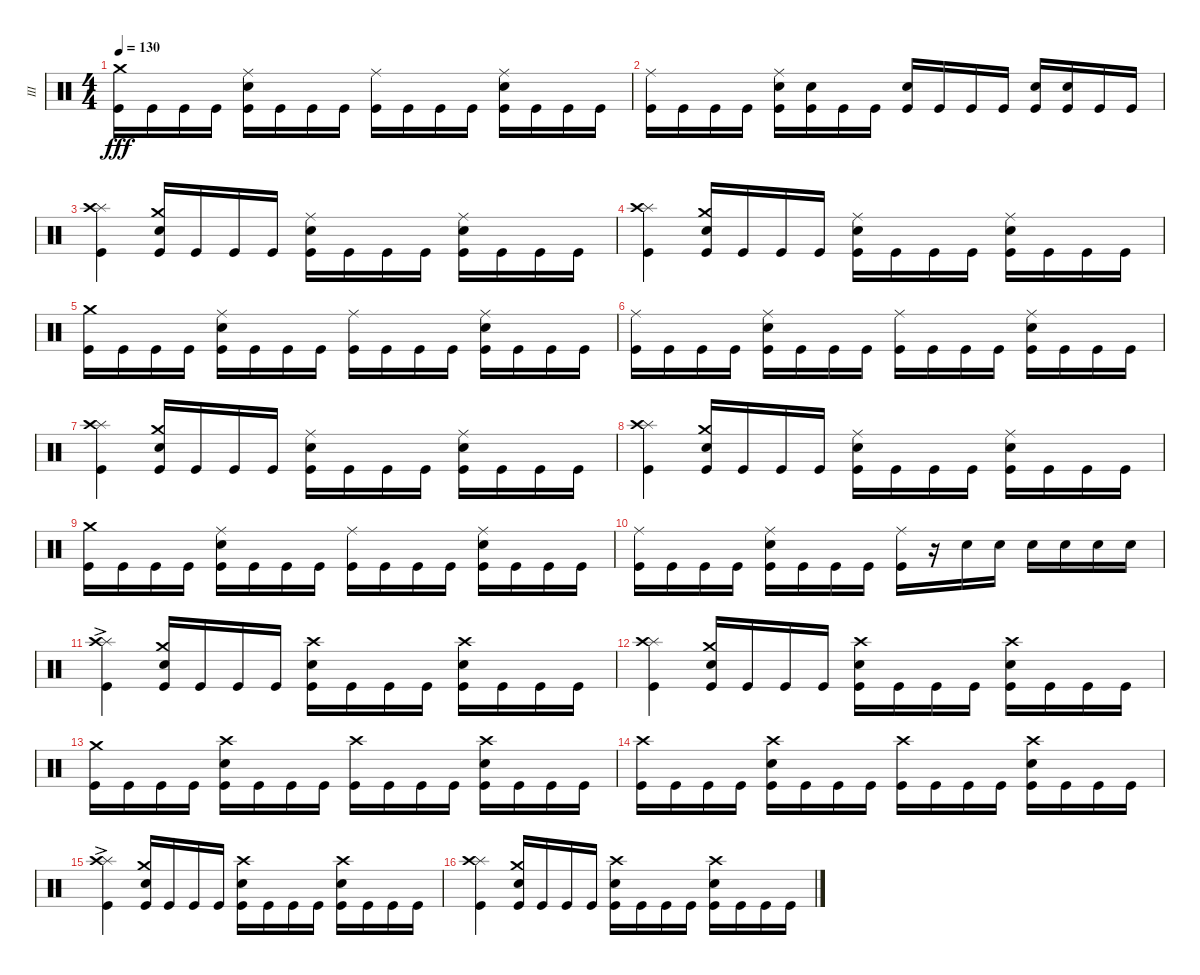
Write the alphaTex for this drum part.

\track ("III" "III") {instrument percussion}
\staff {score}
\articulation defaults
\ts (4 4)
\tempo 130
\clef neutral
\ks c
("Kick (hit)" "Crash medium (hit)").16{dy fff} "Kick (hit)".16 "Kick (hit)".16 "Kick (hit)".16 ("Snare (hit) 2" "Kick (hit)" "Ride (middle)").16 "Kick (hit)".16 "Kick (hit)".16 "Kick (hit)".16 ("Kick (hit)" "Ride (middle)").16 "Kick (hit)".16 "Kick (hit)".16 "Kick (hit)".16 ("Snare (hit) 2" "Kick (hit)" "Ride (middle)").16 "Kick (hit)".16 "Kick (hit)".16 "Kick (hit)".16 |
("Kick (hit)" "Ride (middle)").16 "Kick (hit)".16 "Kick (hit)".16 "Kick (hit)".16 ("Snare (hit) 2" "Kick (hit)" "Ride (middle)").16 ("Snare (hit) 2" "Kick (hit)").16 "Kick (hit)".16 "Kick (hit)".16 ("Snare (hit) 2" "Kick (hit)").16 "Kick (hit)".16 "Kick (hit)".16 "Kick (hit)".16 ("Snare (hit) 2" "Kick (hit)").16 ("Snare (hit) 2" "Kick (hit)").16 "Kick (hit)".16 "Kick (hit)".16 |
("Splash (hit)" "Crash high (hit)" "Kick (hit)").4 ("Kick (hit)" "Snare (hit) 2" "Crash medium (hit)").16 "Kick (hit)".16 "Kick (hit)".16 "Kick (hit)".16 ("Snare (hit) 2" "Kick (hit)" "Ride (middle)").16 "Kick (hit)".16 "Kick (hit)".16 "Kick (hit)".16 ("Snare (hit) 2" "Kick (hit)" "Ride (middle)").16 "Kick (hit)".16 "Kick (hit)".16 "Kick (hit)".16 |
("Splash (hit)" "Crash high (hit)" "Kick (hit)").4 ("Kick (hit)" "Snare (hit) 2" "Crash medium (hit)").16 "Kick (hit)".16 "Kick (hit)".16 "Kick (hit)".16 ("Snare (hit) 2" "Kick (hit)" "Ride (middle)").16 "Kick (hit)".16 "Kick (hit)".16 "Kick (hit)".16 ("Snare (hit) 2" "Kick (hit)" "Ride (middle)").16 "Kick (hit)".16 "Kick (hit)".16 "Kick (hit)".16 |
("Kick (hit)" "Crash medium (hit)").16 "Kick (hit)".16 "Kick (hit)".16 "Kick (hit)".16 ("Snare (hit) 2" "Kick (hit)" "Ride (middle)").16 "Kick (hit)".16 "Kick (hit)".16 "Kick (hit)".16 ("Kick (hit)" "Ride (middle)").16 "Kick (hit)".16 "Kick (hit)".16 "Kick (hit)".16 ("Snare (hit) 2" "Kick (hit)" "Ride (middle)").16 "Kick (hit)".16 "Kick (hit)".16 "Kick (hit)".16 |
("Kick (hit)" "Ride (middle)").16 "Kick (hit)".16 "Kick (hit)".16 "Kick (hit)".16 ("Snare (hit) 2" "Kick (hit)" "Ride (middle)").16 "Kick (hit)".16 "Kick (hit)".16 "Kick (hit)".16 ("Kick (hit)" "Ride (middle)").16 "Kick (hit)".16 "Kick (hit)".16 "Kick (hit)".16 ("Snare (hit) 2" "Kick (hit)" "Ride (middle)").16 "Kick (hit)".16 "Kick (hit)".16 "Kick (hit)".16 |
("Splash (hit)" "Crash high (hit)" "Kick (hit)").4 ("Kick (hit)" "Snare (hit) 2" "Crash medium (hit)").16 "Kick (hit)".16 "Kick (hit)".16 "Kick (hit)".16 ("Snare (hit) 2" "Kick (hit)" "Ride (middle)").16 "Kick (hit)".16 "Kick (hit)".16 "Kick (hit)".16 ("Snare (hit) 2" "Kick (hit)" "Ride (middle)").16 "Kick (hit)".16 "Kick (hit)".16 "Kick (hit)".16 |
("Splash (hit)" "Crash high (hit)" "Kick (hit)").4 ("Kick (hit)" "Snare (hit) 2" "Crash medium (hit)").16 "Kick (hit)".16 "Kick (hit)".16 "Kick (hit)".16 ("Snare (hit) 2" "Kick (hit)" "Ride (middle)").16 "Kick (hit)".16 "Kick (hit)".16 "Kick (hit)".16 ("Snare (hit) 2" "Kick (hit)" "Ride (middle)").16 "Kick (hit)".16 "Kick (hit)".16 "Kick (hit)".16 |
("Kick (hit)" "Crash medium (hit)").16 "Kick (hit)".16 "Kick (hit)".16 "Kick (hit)".16 ("Snare (hit) 2" "Kick (hit)" "Ride (middle)").16 "Kick (hit)".16 "Kick (hit)".16 "Kick (hit)".16 ("Kick (hit)" "Ride (middle)").16 "Kick (hit)".16 "Kick (hit)".16 "Kick (hit)".16 ("Snare (hit) 2" "Kick (hit)" "Ride (middle)").16 "Kick (hit)".16 "Kick (hit)".16 "Kick (hit)".16 |
("Kick (hit)" "Ride (middle)").16 "Kick (hit)".16 "Kick (hit)".16 "Kick (hit)".16 ("Snare (hit) 2" "Kick (hit)" "Ride (middle)").16 "Kick (hit)".16 "Kick (hit)".16 "Kick (hit)".16 ("Kick (hit)" "Ride (middle)").16 r.16 "Snare (hit) 2".16 "Snare (hit) 2".16 "Snare (hit) 2".16 "Snare (hit) 2".16 "Snare (hit) 2".16 "Snare (hit) 2".16 |
("Splash (hit)"{ac} "Crash high (hit)"{ac} "Kick (hit)"{ac}).4 ("Kick (hit)" "Snare (hit) 2" "Crash medium (hit)").16 "Kick (hit)".16 "Kick (hit)".16 "Kick (hit)".16 ("Snare (hit) 2" "Kick (hit)" "Crash high (hit)").16 "Kick (hit)".16 "Kick (hit)".16 "Kick (hit)".16 ("Snare (hit) 2" "Kick (hit)" "Crash high (hit)").16 "Kick (hit)".16 "Kick (hit)".16 "Kick (hit)".16 |
("Splash (hit)" "Crash high (hit)" "Kick (hit)").4 ("Kick (hit)" "Snare (hit) 2" "Crash medium (hit)").16 "Kick (hit)".16 "Kick (hit)".16 "Kick (hit)".16 ("Snare (hit) 2" "Kick (hit)" "Crash high (hit)").16 "Kick (hit)".16 "Kick (hit)".16 "Kick (hit)".16 ("Snare (hit) 2" "Kick (hit)" "Crash high (hit)").16 "Kick (hit)".16 "Kick (hit)".16 "Kick (hit)".16 |
("Kick (hit)" "Crash medium (hit)").16 "Kick (hit)".16 "Kick (hit)".16 "Kick (hit)".16 ("Snare (hit) 2" "Kick (hit)" "Crash high (hit)").16 "Kick (hit)".16 "Kick (hit)".16 "Kick (hit)".16 ("Kick (hit)" "Crash high (hit)").16 "Kick (hit)".16 "Kick (hit)".16 "Kick (hit)".16 ("Snare (hit) 2" "Kick (hit)" "Crash high (hit)").16 "Kick (hit)".16 "Kick (hit)".16 "Kick (hit)".16 |
("Kick (hit)" "Crash high (hit)").16 "Kick (hit)".16 "Kick (hit)".16 "Kick (hit)".16 ("Snare (hit) 2" "Kick (hit)" "Crash high (hit)").16 "Kick (hit)".16 "Kick (hit)".16 "Kick (hit)".16 ("Kick (hit)" "Crash high (hit)").16 "Kick (hit)".16 "Kick (hit)".16 "Kick (hit)".16 ("Snare (hit) 2" "Kick (hit)" "Crash high (hit)").16 "Kick (hit)".16 "Kick (hit)".16 "Kick (hit)".16 |
("Splash (hit)"{ac} "Crash high (hit)"{ac} "Kick (hit)"{ac}).4 ("Kick (hit)" "Snare (hit) 2" "Crash medium (hit)").16 "Kick (hit)".16 "Kick (hit)".16 "Kick (hit)".16 ("Snare (hit) 2" "Kick (hit)" "Crash high (hit)").16 "Kick (hit)".16 "Kick (hit)".16 "Kick (hit)".16 ("Snare (hit) 2" "Kick (hit)" "Crash high (hit)").16 "Kick (hit)".16 "Kick (hit)".16 "Kick (hit)".16 |
("Splash (hit)" "Crash high (hit)" "Kick (hit)").4 ("Kick (hit)" "Snare (hit) 2" "Crash medium (hit)").16 "Kick (hit)".16 "Kick (hit)".16 "Kick (hit)".16 ("Snare (hit) 2" "Kick (hit)" "Crash high (hit)").16 "Kick (hit)".16 "Kick (hit)".16 "Kick (hit)".16 ("Snare (hit) 2" "Kick (hit)" "Crash high (hit)").16 "Kick (hit)".16 "Kick (hit)".16 "Kick (hit)".16
